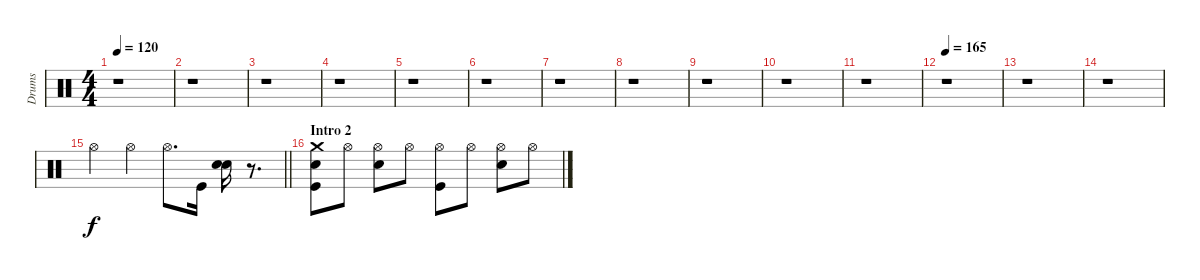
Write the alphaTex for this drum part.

\track ("Drums" "Drums") {instrument percussion}
\staff {score}
\articulation defaults
\ts (4 4)
\tempo 120
\clef neutral
\ks c
r.1{dy f} |
r.1 |
r.1 |
r.1 |
r.1 |
r.1 |
r.1 |
r.1 |
r.1 |
r.1 |
r.1 |
\tempo 165
r.1 |
r.1 |
r.1 |
\barLineRight lightlight "Hi-Hat (open)".4{volume 13 balance 8} "Hi-Hat (open)".4 "Hi-Hat (open)".8{d} "Kick (hit)".16
("Electric Snare (hit)" "Electric Snare (hit)").16 r.8{d} |
\section ("" "Intro 2")
("Electric Snare (hit)" "Kick (hit)" "Crash medium (hit)").8{volume 13 balance 8} "Hi-Hat (open)".8 ("Hi-Hat (open)" "Electric Snare (hit)").8 "Hi-Hat (open)".8 ("Hi-Hat (open)" "Kick (hit)").8 "Hi-Hat (open)".8 ("Electric Snare (hit)" "Hi-Hat (open)").8 "Hi-Hat (open)".8
